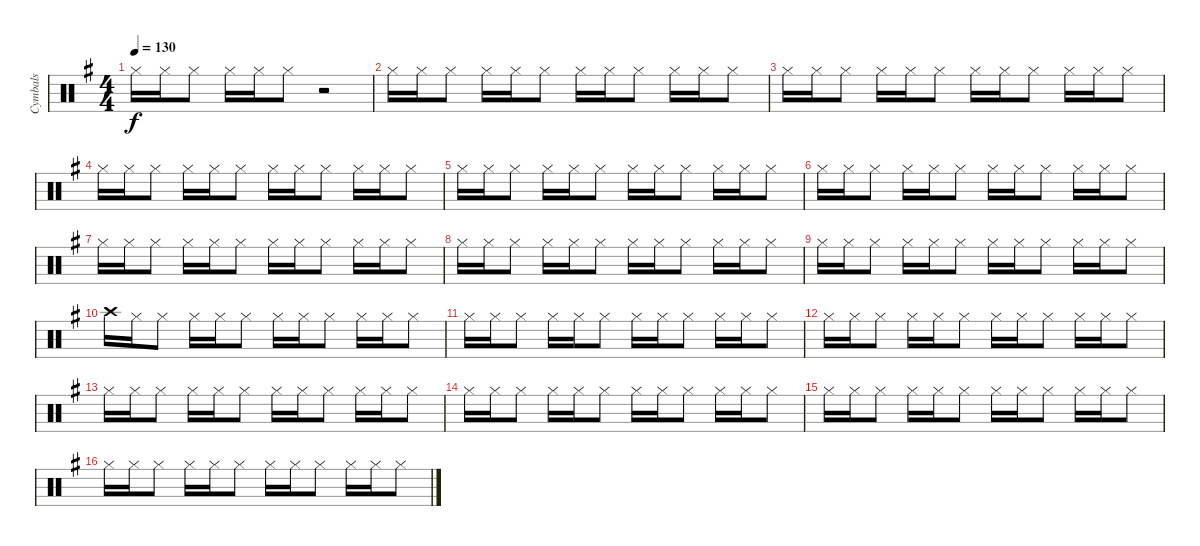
\track ("Cymbals" "Cymbals") {instrument percussion}
\staff {score}
\articulation defaults
\ts (4 4)
\tempo 130
\clef neutral
\ks g "Hi-Hat (closed)".16{dy f} "Hi-Hat (closed)".16 "Hi-Hat (closed)".8 "Hi-Hat (closed)".16 "Hi-Hat (closed)".16 "Hi-Hat (closed)".8
r.2 |
"Hi-Hat (closed)".16 "Hi-Hat (closed)".16 "Hi-Hat (closed)".8 "Hi-Hat (closed)".16 "Hi-Hat (closed)".16 "Hi-Hat (closed)".8 "Hi-Hat (closed)".16 "Hi-Hat (closed)".16 "Hi-Hat (closed)".8 "Hi-Hat (closed)".16 "Hi-Hat (closed)".16 "Hi-Hat (closed)".8 |
"Hi-Hat (closed)".16 "Hi-Hat (closed)".16 "Hi-Hat (closed)".8 "Hi-Hat (closed)".16 "Hi-Hat (closed)".16 "Hi-Hat (closed)".8 "Hi-Hat (closed)".16 "Hi-Hat (closed)".16 "Hi-Hat (closed)".8 "Hi-Hat (closed)".16 "Hi-Hat (closed)".16 "Hi-Hat (closed)".8 |
"Hi-Hat (closed)".16 "Hi-Hat (closed)".16 "Hi-Hat (closed)".8 "Hi-Hat (closed)".16 "Hi-Hat (closed)".16 "Hi-Hat (closed)".8 "Hi-Hat (closed)".16 "Hi-Hat (closed)".16 "Hi-Hat (closed)".8 "Hi-Hat (closed)".16 "Hi-Hat (closed)".16 "Hi-Hat (closed)".8 |
"Hi-Hat (closed)".16 "Hi-Hat (closed)".16 "Hi-Hat (closed)".8 "Hi-Hat (closed)".16 "Hi-Hat (closed)".16 "Hi-Hat (closed)".8 "Hi-Hat (closed)".16 "Hi-Hat (closed)".16 "Hi-Hat (closed)".8 "Hi-Hat (closed)".16 "Hi-Hat (closed)".16 "Hi-Hat (closed)".8 |
"Hi-Hat (closed)".16 "Hi-Hat (closed)".16 "Hi-Hat (closed)".8 "Hi-Hat (closed)".16 "Hi-Hat (closed)".16 "Hi-Hat (closed)".8 "Hi-Hat (closed)".16 "Hi-Hat (closed)".16 "Hi-Hat (closed)".8 "Hi-Hat (closed)".16 "Hi-Hat (closed)".16 "Hi-Hat (closed)".8 |
"Hi-Hat (closed)".16 "Hi-Hat (closed)".16 "Hi-Hat (closed)".8 "Hi-Hat (closed)".16 "Hi-Hat (closed)".16 "Hi-Hat (closed)".8 "Hi-Hat (closed)".16 "Hi-Hat (closed)".16 "Hi-Hat (closed)".8 "Hi-Hat (closed)".16 "Hi-Hat (closed)".16 "Hi-Hat (closed)".8 |
"Hi-Hat (closed)".16 "Hi-Hat (closed)".16 "Hi-Hat (closed)".8 "Hi-Hat (closed)".16 "Hi-Hat (closed)".16 "Hi-Hat (closed)".8 "Hi-Hat (closed)".16 "Hi-Hat (closed)".16 "Hi-Hat (closed)".8 "Hi-Hat (closed)".16 "Hi-Hat (closed)".16 "Hi-Hat (closed)".8 |
"Hi-Hat (closed)".16 "Hi-Hat (closed)".16 "Hi-Hat (closed)".8 "Hi-Hat (closed)".16 "Hi-Hat (closed)".16 "Hi-Hat (closed)".8 "Hi-Hat (closed)".16 "Hi-Hat (closed)".16 "Hi-Hat (closed)".8 "Hi-Hat (closed)".16 "Hi-Hat (closed)".16 "Hi-Hat (closed)".8 |
"Crash high (hit)".16 "Hi-Hat (closed)".16 "Hi-Hat (closed)".8 "Hi-Hat (closed)".16 "Hi-Hat (closed)".16 "Hi-Hat (closed)".8 "Hi-Hat (closed)".16 "Hi-Hat (closed)".16 "Hi-Hat (closed)".8 "Hi-Hat (closed)".16 "Hi-Hat (closed)".16 "Hi-Hat (closed)".8 |
"Hi-Hat (closed)".16 "Hi-Hat (closed)".16 "Hi-Hat (closed)".8 "Hi-Hat (closed)".16 "Hi-Hat (closed)".16 "Hi-Hat (closed)".8 "Hi-Hat (closed)".16 "Hi-Hat (closed)".16 "Hi-Hat (closed)".8 "Hi-Hat (closed)".16 "Hi-Hat (closed)".16 "Hi-Hat (closed)".8 |
"Hi-Hat (closed)".16 "Hi-Hat (closed)".16 "Hi-Hat (closed)".8 "Hi-Hat (closed)".16 "Hi-Hat (closed)".16 "Hi-Hat (closed)".8 "Hi-Hat (closed)".16 "Hi-Hat (closed)".16 "Hi-Hat (closed)".8 "Hi-Hat (closed)".16 "Hi-Hat (closed)".16 "Hi-Hat (closed)".8 |
"Hi-Hat (closed)".16 "Hi-Hat (closed)".16 "Hi-Hat (closed)".8 "Hi-Hat (closed)".16 "Hi-Hat (closed)".16 "Hi-Hat (closed)".8 "Hi-Hat (closed)".16 "Hi-Hat (closed)".16 "Hi-Hat (closed)".8 "Hi-Hat (closed)".16 "Hi-Hat (closed)".16 "Hi-Hat (closed)".8 |
"Hi-Hat (closed)".16 "Hi-Hat (closed)".16 "Hi-Hat (closed)".8 "Hi-Hat (closed)".16 "Hi-Hat (closed)".16 "Hi-Hat (closed)".8 "Hi-Hat (closed)".16 "Hi-Hat (closed)".16 "Hi-Hat (closed)".8 "Hi-Hat (closed)".16 "Hi-Hat (closed)".16 "Hi-Hat (closed)".8 |
"Hi-Hat (closed)".16 "Hi-Hat (closed)".16 "Hi-Hat (closed)".8 "Hi-Hat (closed)".16 "Hi-Hat (closed)".16 "Hi-Hat (closed)".8 "Hi-Hat (closed)".16 "Hi-Hat (closed)".16 "Hi-Hat (closed)".8 "Hi-Hat (closed)".16 "Hi-Hat (closed)".16 "Hi-Hat (closed)".8 |
"Hi-Hat (closed)".16 "Hi-Hat (closed)".16 "Hi-Hat (closed)".8 "Hi-Hat (closed)".16 "Hi-Hat (closed)".16 "Hi-Hat (closed)".8 "Hi-Hat (closed)".16 "Hi-Hat (closed)".16 "Hi-Hat (closed)".8 "Hi-Hat (closed)".16 "Hi-Hat (closed)".16 "Hi-Hat (closed)".8
